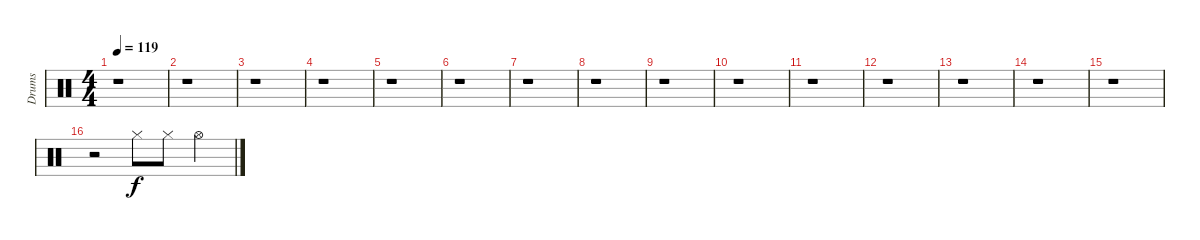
\track ("Drums" "Drums") {instrument percussion}
\staff {score}
\articulation defaults
\ts (4 4)
\tempo 119
\clef neutral
\ks c
r.1{dy f} |
r.1 |
r.1 |
r.1 |
r.1 |
r.1 |
r.1 |
r.1 |
r.1 |
r.1 |
r.1 |
r.1 |
r.1 |
r.1 |
r.1 |
r.2 "Hi-Hat (closed)".8 "Hi-Hat (closed)".8 "Hi-Hat (open)".4
